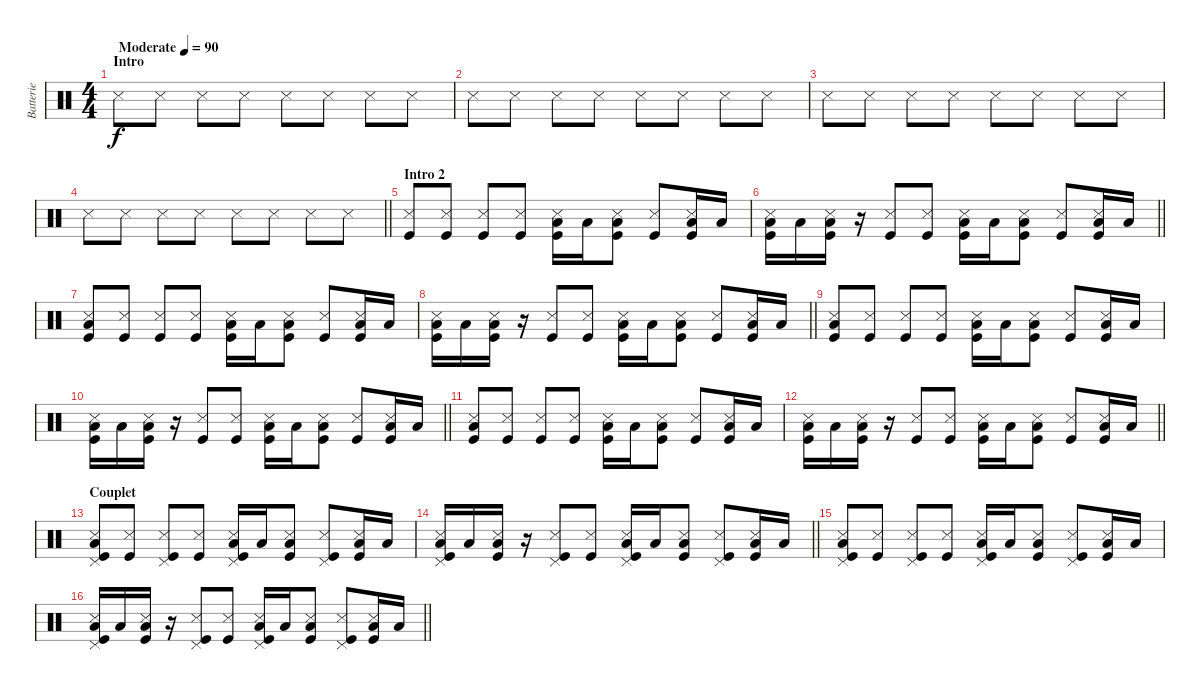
\track ("Batterie" "Batterie") {instrument percussion}
\staff {score}
\articulation defaults
\ts (4 4)
\section ("" "Intro")
\tempo (90 "Moderate")
\clef neutral
\ks c "Snare (side stick) 3".8{dy f} "Snare (side stick) 3".8 "Snare (side stick) 3".8 "Snare (side stick) 3".8 "Snare (side stick) 3".8 "Snare (side stick) 3".8 "Snare (side stick) 3".8 "Snare (side stick) 3".8
|
"Snare (side stick) 3".8 "Snare (side stick) 3".8 "Snare (side stick) 3".8 "Snare (side stick) 3".8 "Snare (side stick) 3".8 "Snare (side stick) 3".8 "Snare (side stick) 3".8 "Snare (side stick) 3".8 |
"Snare (side stick) 3".8 "Snare (side stick) 3".8 "Snare (side stick) 3".8 "Snare (side stick) 3".8 "Snare (side stick) 3".8 "Snare (side stick) 3".8 "Snare (side stick) 3".8 "Snare (side stick) 3".8 |
\barLineRight lightlight "Snare (side stick) 3".8 "Snare (side stick) 3".8 "Snare (side stick) 3".8 "Snare (side stick) 3".8 "Snare (side stick) 3".8 "Snare (side stick) 3".8 "Snare (side stick) 3".8 "Snare (side stick) 3".8
|
\section ("" "Intro 2")
("Snare (side stick) 3" "Kick (hit)").8 ("Snare (side stick) 3" "Kick (hit)").8 ("Snare (side stick) 3" "Kick (hit)").8 ("Snare (side stick) 3" "Kick (hit)").8 ("Snare (side stick) 3" "Low Floor Tom (hit)" "Kick (hit)").16 "Low Floor Tom (hit)".16 ("Snare (side stick) 3" "Low Floor Tom (hit)" "Kick (hit)").8 ("Snare (side stick) 3" "Kick (hit)").8 ("Snare (side stick) 3" "Low Floor Tom (hit)" "Kick (hit)").16 "Low Floor Tom (hit)".16 |
\barLineRight lightlight
("Snare (side stick) 3" "Low Floor Tom (hit)" "Kick (hit)").16 "Low Floor Tom (hit)".16 ("Snare (side stick) 3" "Low Floor Tom (hit)" "Kick (hit)").16 r.16 ("Snare (side stick) 3" "Kick (hit)").8 ("Snare (side stick) 3" "Kick (hit)").8 ("Snare (side stick) 3" "Low Floor Tom (hit)" "Kick (hit)").16 "Low Floor Tom (hit)".16 ("Snare (side stick) 3" "Low Floor Tom (hit)" "Kick (hit)").8 ("Snare (side stick) 3" "Kick (hit)").8 ("Snare (side stick) 3" "Low Floor Tom (hit)" "Kick (hit)").16 "Low Floor Tom (hit)".16 |
("Snare (side stick) 3" "Low Floor Tom (hit)" "Kick (hit)").8 ("Snare (side stick) 3" "Kick (hit)").8 ("Snare (side stick) 3" "Kick (hit)").8 ("Snare (side stick) 3" "Kick (hit)").8 ("Snare (side stick) 3" "Low Floor Tom (hit)" "Kick (hit)").16 "Low Floor Tom (hit)".16 ("Snare (side stick) 3" "Low Floor Tom (hit)" "Kick (hit)").8 ("Snare (side stick) 3" "Kick (hit)").8 ("Snare (side stick) 3" "Low Floor Tom (hit)" "Kick (hit)").16 "Low Floor Tom (hit)".16 |
\barLineRight lightlight
("Snare (side stick) 3" "Low Floor Tom (hit)" "Kick (hit)").16 "Low Floor Tom (hit)".16 ("Snare (side stick) 3" "Low Floor Tom (hit)" "Kick (hit)").16 r.16 ("Snare (side stick) 3" "Kick (hit)").8 ("Snare (side stick) 3" "Kick (hit)").8 ("Snare (side stick) 3" "Low Floor Tom (hit)" "Kick (hit)").16 "Low Floor Tom (hit)".16 ("Snare (side stick) 3" "Low Floor Tom (hit)" "Kick (hit)").8 ("Snare (side stick) 3" "Kick (hit)").8 ("Snare (side stick) 3" "Low Floor Tom (hit)" "Kick (hit)").16 "Low Floor Tom (hit)".16 |
("Snare (side stick) 3" "Low Floor Tom (hit)" "Kick (hit)").8 ("Snare (side stick) 3" "Kick (hit)").8 ("Snare (side stick) 3" "Kick (hit)").8 ("Snare (side stick) 3" "Kick (hit)").8 ("Snare (side stick) 3" "Low Floor Tom (hit)" "Kick (hit)").16 "Low Floor Tom (hit)".16 ("Snare (side stick) 3" "Low Floor Tom (hit)" "Kick (hit)").8 ("Snare (side stick) 3" "Kick (hit)").8 ("Snare (side stick) 3" "Low Floor Tom (hit)" "Kick (hit)").16 "Low Floor Tom (hit)".16 |
\barLineRight lightlight
("Snare (side stick) 3" "Low Floor Tom (hit)" "Kick (hit)").16 "Low Floor Tom (hit)".16 ("Snare (side stick) 3" "Low Floor Tom (hit)" "Kick (hit)").16 r.16 ("Snare (side stick) 3" "Kick (hit)").8 ("Snare (side stick) 3" "Kick (hit)").8 ("Snare (side stick) 3" "Low Floor Tom (hit)" "Kick (hit)").16 "Low Floor Tom (hit)".16 ("Snare (side stick) 3" "Low Floor Tom (hit)" "Kick (hit)").8 ("Snare (side stick) 3" "Kick (hit)").8 ("Snare (side stick) 3" "Low Floor Tom (hit)" "Kick (hit)").16 "Low Floor Tom (hit)".16 |
("Snare (side stick) 3" "Low Floor Tom (hit)" "Kick (hit)").8 ("Snare (side stick) 3" "Kick (hit)").8 ("Snare (side stick) 3" "Kick (hit)").8 ("Snare (side stick) 3" "Kick (hit)").8 ("Snare (side stick) 3" "Low Floor Tom (hit)" "Kick (hit)").16 "Low Floor Tom (hit)".16 ("Snare (side stick) 3" "Low Floor Tom (hit)" "Kick (hit)").8 ("Snare (side stick) 3" "Kick (hit)").8 ("Snare (side stick) 3" "Low Floor Tom (hit)" "Kick (hit)").16 "Low Floor Tom (hit)".16 |
\barLineRight lightlight
("Snare (side stick) 3" "Low Floor Tom (hit)" "Kick (hit)").16 "Low Floor Tom (hit)".16 ("Snare (side stick) 3" "Low Floor Tom (hit)" "Kick (hit)").16 r.16 ("Snare (side stick) 3" "Kick (hit)").8 ("Snare (side stick) 3" "Kick (hit)").8 ("Snare (side stick) 3" "Low Floor Tom (hit)" "Kick (hit)").16 "Low Floor Tom (hit)".16 ("Snare (side stick) 3" "Low Floor Tom (hit)" "Kick (hit)").8 ("Snare (side stick) 3" "Kick (hit)").8 ("Snare (side stick) 3" "Low Floor Tom (hit)" "Kick (hit)").16 "Low Floor Tom (hit)".16 |
\section ("" "Couplet")
("Snare (side stick) 3" "Pedal Hi-Hat (hit)" "Low Floor Tom (hit)" "Kick (hit)").8 ("Snare (side stick) 3" "Kick (hit)").8 ("Snare (side stick) 3" "Pedal Hi-Hat (hit)" "Kick (hit)").8 ("Snare (side stick) 3" "Kick (hit)").8 ("Snare (side stick) 3" "Pedal Hi-Hat (hit)" "Low Floor Tom (hit)" "Kick (hit)").16 "Low Floor Tom (hit)".16 ("Snare (side stick) 3" "Low Floor Tom (hit)" "Kick (hit)").8 ("Snare (side stick) 3" "Pedal Hi-Hat (hit)" "Kick (hit)").8 ("Snare (side stick) 3" "Low Floor Tom (hit)" "Kick (hit)").16 "Low Floor Tom (hit)".16 |
\barLineRight lightlight
("Snare (side stick) 3" "Pedal Hi-Hat (hit)" "Low Floor Tom (hit)" "Kick (hit)").16 "Low Floor Tom (hit)".16 ("Snare (side stick) 3" "Low Floor Tom (hit)" "Kick (hit)").16 r.16 ("Snare (side stick) 3" "Pedal Hi-Hat (hit)" "Kick (hit)").8 ("Snare (side stick) 3" "Kick (hit)").8 ("Snare (side stick) 3" "Pedal Hi-Hat (hit)" "Low Floor Tom (hit)" "Kick (hit)").16 "Low Floor Tom (hit)".16 ("Snare (side stick) 3" "Low Floor Tom (hit)" "Kick (hit)").8 ("Snare (side stick) 3" "Pedal Hi-Hat (hit)" "Kick (hit)").8 ("Snare (side stick) 3" "Low Floor Tom (hit)" "Kick (hit)").16 "Low Floor Tom (hit)".16 |
("Snare (side stick) 3" "Pedal Hi-Hat (hit)" "Low Floor Tom (hit)" "Kick (hit)").8 ("Snare (side stick) 3" "Kick (hit)").8 ("Snare (side stick) 3" "Pedal Hi-Hat (hit)" "Kick (hit)").8 ("Snare (side stick) 3" "Kick (hit)").8 ("Snare (side stick) 3" "Pedal Hi-Hat (hit)" "Low Floor Tom (hit)" "Kick (hit)").16 "Low Floor Tom (hit)".16 ("Snare (side stick) 3" "Low Floor Tom (hit)" "Kick (hit)").8 ("Snare (side stick) 3" "Pedal Hi-Hat (hit)" "Kick (hit)").8 ("Snare (side stick) 3" "Low Floor Tom (hit)" "Kick (hit)").16 "Low Floor Tom (hit)".16 |
\barLineRight lightlight
("Snare (side stick) 3" "Pedal Hi-Hat (hit)" "Low Floor Tom (hit)" "Kick (hit)").16 "Low Floor Tom (hit)".16 ("Snare (side stick) 3" "Low Floor Tom (hit)" "Kick (hit)").16 r.16 ("Snare (side stick) 3" "Pedal Hi-Hat (hit)" "Kick (hit)").8 ("Snare (side stick) 3" "Kick (hit)").8 ("Snare (side stick) 3" "Pedal Hi-Hat (hit)" "Low Floor Tom (hit)" "Kick (hit)").16 "Low Floor Tom (hit)".16 ("Snare (side stick) 3" "Low Floor Tom (hit)" "Kick (hit)").8 ("Snare (side stick) 3" "Pedal Hi-Hat (hit)" "Kick (hit)").8 ("Snare (side stick) 3" "Low Floor Tom (hit)" "Kick (hit)").16 "Low Floor Tom (hit)".16
